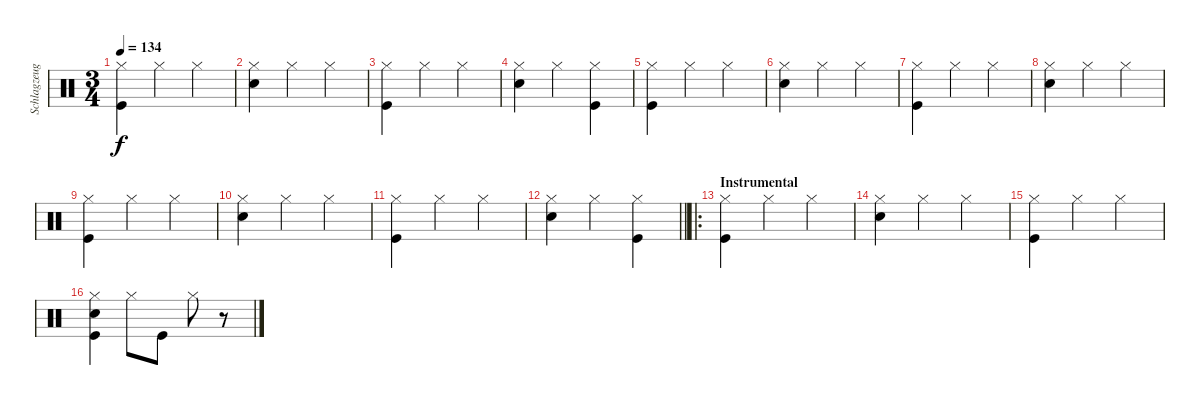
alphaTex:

\track ("Schlagzeug" "Schlagzeug") {instrument percussion}
\staff {score}
\articulation defaults
\ts (3 4)
\tempo 134
\clef neutral
\ks c
("Hi-Hat (closed)" "Kick (hit)").4{dy f} "Hi-Hat (closed)".4 "Hi-Hat (closed)".4 |
("Hi-Hat (closed)" "Snare (hit) 2").4 "Hi-Hat (closed)".4 "Hi-Hat (closed)".4 |
("Hi-Hat (closed)" "Kick (hit)").4 "Hi-Hat (closed)".4 "Hi-Hat (closed)".4 |
("Hi-Hat (closed)" "Snare (hit) 2").4 "Hi-Hat (closed)".4 ("Hi-Hat (closed)" "Kick (hit)").4 |
("Hi-Hat (closed)" "Kick (hit)").4 "Hi-Hat (closed)".4 "Hi-Hat (closed)".4 |
("Hi-Hat (closed)" "Snare (hit) 2").4 "Hi-Hat (closed)".4 "Hi-Hat (closed)".4 |
("Hi-Hat (closed)" "Kick (hit)").4 "Hi-Hat (closed)".4 "Hi-Hat (closed)".4 |
("Hi-Hat (closed)" "Snare (hit) 2").4 "Hi-Hat (closed)".4 "Hi-Hat (closed)".4 |
("Hi-Hat (closed)" "Kick (hit)").4 "Hi-Hat (closed)".4 "Hi-Hat (closed)".4 |
("Hi-Hat (closed)" "Snare (hit) 2").4 "Hi-Hat (closed)".4 "Hi-Hat (closed)".4 |
("Hi-Hat (closed)" "Kick (hit)").4 "Hi-Hat (closed)".4 "Hi-Hat (closed)".4 |
\barLineRight lightlight
("Hi-Hat (closed)" "Snare (hit) 2").4 "Hi-Hat (closed)".4 ("Hi-Hat (closed)" "Kick (hit)").4 |
\ro
\section ("" "Instrumental")
("Hi-Hat (closed)" "Kick (hit)").4 "Hi-Hat (closed)".4 "Hi-Hat (closed)".4 |
("Hi-Hat (closed)" "Snare (hit) 2").4 "Hi-Hat (closed)".4 "Hi-Hat (closed)".4 |
("Hi-Hat (closed)" "Kick (hit)").4 "Hi-Hat (closed)".4 "Hi-Hat (closed)".4 |
("Hi-Hat (closed)" "Kick (hit)" "Snare (hit) 2").4 "Hi-Hat (closed)".8 "Kick (hit)".8 "Hi-Hat (closed)".8 r.8
